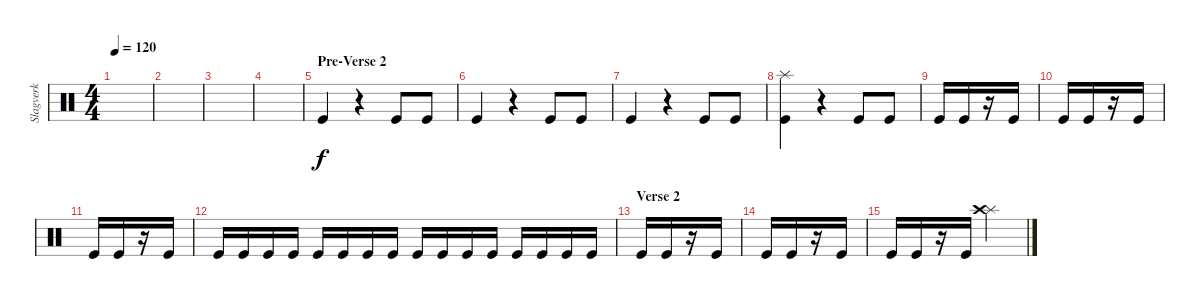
\track ("Slagverk" "Slagverk") {instrument percussion}
\staff {score}
\articulation defaults
\ts (4 4)
\tempo 120
\clef neutral
\ks c
|
|
|
|
\section ("" "Pre-Verse 2")
"Kick (hit)".4 r.4 "Kick (hit)".8 "Kick (hit)".8 |
"Kick (hit)".4 r.4 "Kick (hit)".8 "Kick (hit)".8 |
"Kick (hit)".4 r.4 "Kick (hit)".8 "Kick (hit)".8 |
("Kick (hit)" "Splash (hit)").4 r.4 "Kick (hit)".8 "Kick (hit)".8 |
"Kick (hit)".16 "Kick (hit)".16 r.16 "Kick (hit)".16 |
"Kick (hit)".16 "Kick (hit)".16 r.16 "Kick (hit)".16 |
"Kick (hit)".16 "Kick (hit)".16 r.16 "Kick (hit)".16 |
"Kick (hit)".16 "Kick (hit)".16 "Kick (hit)".16 "Kick (hit)".16 "Kick (hit)".16 "Kick (hit)".16 "Kick (hit)".16 "Kick (hit)".16 "Kick (hit)".16 "Kick (hit)".16 "Kick (hit)".16 "Kick (hit)".16 "Kick (hit)".16 "Kick (hit)".16 "Kick (hit)".16 "Kick (hit)".16 |
\section ("" "Verse 2")
"Kick (hit)".16 "Kick (hit)".16 r.16 "Kick (hit)".16 |
"Kick (hit)".16 "Kick (hit)".16 r.16 "Kick (hit)".16 |
"Kick (hit)".16 "Kick (hit)".16 r.16 "Kick (hit)".16 ("Splash (hit)" "Crash high (hit)").4
